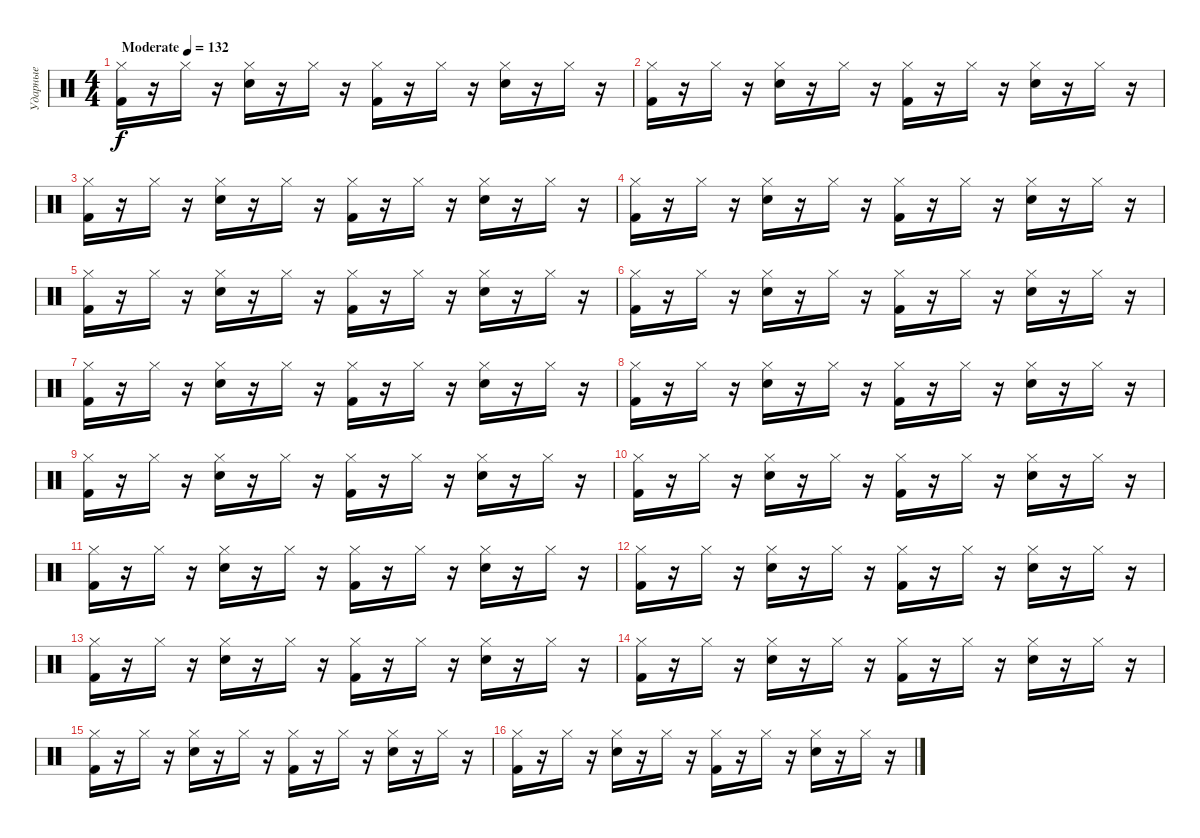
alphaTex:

\track ("Ударные" "Ударные") {instrument percussion}
\staff {score}
\articulation defaults
\ts (4 4)
\tempo (132 "Moderate")
\clef neutral
\ks c
("Kick (hit) 2" "Hi-Hat (closed)").16{dy f} r.16 "Hi-Hat (closed)".16 r.16 ("Snare (hit) 2" "Hi-Hat (closed)").16 r.16 "Hi-Hat (closed)".16 r.16 ("Kick (hit) 2" "Hi-Hat (closed)").16 r.16 "Hi-Hat (closed)".16 r.16 ("Snare (hit) 2" "Hi-Hat (closed)").16 r.16 "Hi-Hat (closed)".16 r.16 |
("Kick (hit) 2" "Hi-Hat (closed)").16 r.16 "Hi-Hat (closed)".16 r.16 ("Snare (hit) 2" "Hi-Hat (closed)").16 r.16 "Hi-Hat (closed)".16 r.16 ("Kick (hit) 2" "Hi-Hat (closed)").16 r.16 "Hi-Hat (closed)".16 r.16 ("Snare (hit) 2" "Hi-Hat (closed)").16 r.16 "Hi-Hat (closed)".16 r.16 |
("Kick (hit) 2" "Hi-Hat (closed)").16 r.16 "Hi-Hat (closed)".16 r.16 ("Snare (hit) 2" "Hi-Hat (closed)").16 r.16 "Hi-Hat (closed)".16 r.16 ("Kick (hit) 2" "Hi-Hat (closed)").16 r.16 "Hi-Hat (closed)".16 r.16 ("Snare (hit) 2" "Hi-Hat (closed)").16 r.16 "Hi-Hat (closed)".16 r.16 |
("Kick (hit) 2" "Hi-Hat (closed)").16 r.16 "Hi-Hat (closed)".16 r.16 ("Snare (hit) 2" "Hi-Hat (closed)").16 r.16 "Hi-Hat (closed)".16 r.16 ("Kick (hit) 2" "Hi-Hat (closed)").16 r.16 "Hi-Hat (closed)".16 r.16 ("Snare (hit) 2" "Hi-Hat (closed)").16 r.16 "Hi-Hat (closed)".16 r.16 |
("Kick (hit) 2" "Hi-Hat (closed)").16 r.16 "Hi-Hat (closed)".16 r.16 ("Snare (hit) 2" "Hi-Hat (closed)").16 r.16 "Hi-Hat (closed)".16 r.16 ("Kick (hit) 2" "Hi-Hat (closed)").16 r.16 "Hi-Hat (closed)".16 r.16 ("Snare (hit) 2" "Hi-Hat (closed)").16 r.16 "Hi-Hat (closed)".16 r.16 |
("Kick (hit) 2" "Hi-Hat (closed)").16 r.16 "Hi-Hat (closed)".16 r.16 ("Snare (hit) 2" "Hi-Hat (closed)").16 r.16 "Hi-Hat (closed)".16 r.16 ("Kick (hit) 2" "Hi-Hat (closed)").16 r.16 "Hi-Hat (closed)".16 r.16 ("Snare (hit) 2" "Hi-Hat (closed)").16 r.16 "Hi-Hat (closed)".16 r.16 |
("Kick (hit) 2" "Hi-Hat (closed)").16 r.16 "Hi-Hat (closed)".16 r.16 ("Snare (hit) 2" "Hi-Hat (closed)").16 r.16 "Hi-Hat (closed)".16 r.16 ("Kick (hit) 2" "Hi-Hat (closed)").16 r.16 "Hi-Hat (closed)".16 r.16 ("Snare (hit) 2" "Hi-Hat (closed)").16 r.16 "Hi-Hat (closed)".16 r.16 |
("Kick (hit) 2" "Hi-Hat (closed)").16 r.16 "Hi-Hat (closed)".16 r.16 ("Snare (hit) 2" "Hi-Hat (closed)").16 r.16 "Hi-Hat (closed)".16 r.16 ("Kick (hit) 2" "Hi-Hat (closed)").16 r.16 "Hi-Hat (closed)".16 r.16 ("Snare (hit) 2" "Hi-Hat (closed)").16 r.16 "Hi-Hat (closed)".16 r.16 |
("Kick (hit) 2" "Hi-Hat (closed)").16 r.16 "Hi-Hat (closed)".16 r.16 ("Snare (hit) 2" "Hi-Hat (closed)").16 r.16 "Hi-Hat (closed)".16 r.16 ("Kick (hit) 2" "Hi-Hat (closed)").16 r.16 "Hi-Hat (closed)".16 r.16 ("Snare (hit) 2" "Hi-Hat (closed)").16 r.16 "Hi-Hat (closed)".16 r.16 |
("Kick (hit) 2" "Hi-Hat (closed)").16 r.16 "Hi-Hat (closed)".16 r.16 ("Snare (hit) 2" "Hi-Hat (closed)").16 r.16 "Hi-Hat (closed)".16 r.16 ("Kick (hit) 2" "Hi-Hat (closed)").16 r.16 "Hi-Hat (closed)".16 r.16 ("Snare (hit) 2" "Hi-Hat (closed)").16 r.16 "Hi-Hat (closed)".16 r.16 |
("Kick (hit) 2" "Hi-Hat (closed)").16 r.16 "Hi-Hat (closed)".16 r.16 ("Snare (hit) 2" "Hi-Hat (closed)").16 r.16 "Hi-Hat (closed)".16 r.16 ("Kick (hit) 2" "Hi-Hat (closed)").16 r.16 "Hi-Hat (closed)".16 r.16 ("Snare (hit) 2" "Hi-Hat (closed)").16 r.16 "Hi-Hat (closed)".16 r.16 |
("Kick (hit) 2" "Hi-Hat (closed)").16 r.16 "Hi-Hat (closed)".16 r.16 ("Snare (hit) 2" "Hi-Hat (closed)").16 r.16 "Hi-Hat (closed)".16 r.16 ("Kick (hit) 2" "Hi-Hat (closed)").16 r.16 "Hi-Hat (closed)".16 r.16 ("Snare (hit) 2" "Hi-Hat (closed)").16 r.16 "Hi-Hat (closed)".16 r.16 |
("Kick (hit) 2" "Hi-Hat (closed)").16 r.16 "Hi-Hat (closed)".16 r.16 ("Snare (hit) 2" "Hi-Hat (closed)").16 r.16 "Hi-Hat (closed)".16 r.16 ("Kick (hit) 2" "Hi-Hat (closed)").16 r.16 "Hi-Hat (closed)".16 r.16 ("Snare (hit) 2" "Hi-Hat (closed)").16 r.16 "Hi-Hat (closed)".16 r.16 |
("Kick (hit) 2" "Hi-Hat (closed)").16 r.16 "Hi-Hat (closed)".16 r.16 ("Snare (hit) 2" "Hi-Hat (closed)").16 r.16 "Hi-Hat (closed)".16 r.16 ("Kick (hit) 2" "Hi-Hat (closed)").16 r.16 "Hi-Hat (closed)".16 r.16 ("Snare (hit) 2" "Hi-Hat (closed)").16 r.16 "Hi-Hat (closed)".16 r.16 |
("Kick (hit) 2" "Hi-Hat (closed)").16 r.16 "Hi-Hat (closed)".16 r.16 ("Snare (hit) 2" "Hi-Hat (closed)").16 r.16 "Hi-Hat (closed)".16 r.16 ("Kick (hit) 2" "Hi-Hat (closed)").16 r.16 "Hi-Hat (closed)".16 r.16 ("Snare (hit) 2" "Hi-Hat (closed)").16 r.16 "Hi-Hat (closed)".16 r.16 |
("Kick (hit) 2" "Hi-Hat (closed)").16 r.16 "Hi-Hat (closed)".16 r.16 ("Snare (hit) 2" "Hi-Hat (closed)").16 r.16 "Hi-Hat (closed)".16 r.16 ("Kick (hit) 2" "Hi-Hat (closed)").16 r.16 "Hi-Hat (closed)".16 r.16 ("Snare (hit) 2" "Hi-Hat (closed)").16 r.16 "Hi-Hat (closed)".16 r.16
